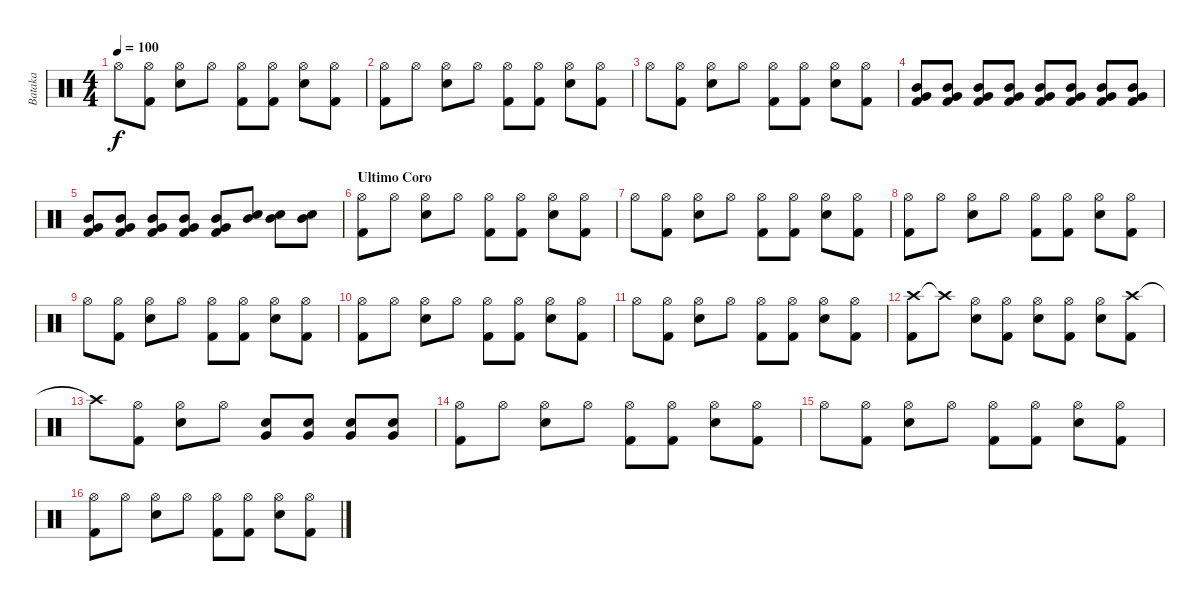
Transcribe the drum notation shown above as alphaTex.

\track ("Bataka" "Bataka") {instrument percussion}
\staff {score}
\articulation defaults
\ts (4 4)
\tempo 100
\clef neutral
\ks c "Hi-Hat (open)".8{dy f}
("Hi-Hat (open)" "Kick (hit) 2").8 ("Hi-Hat (open)" "Snare (hit) 2").8 "Hi-Hat (open)".8 ("Hi-Hat (open)" "Kick (hit) 2").8 ("Hi-Hat (open)" "Kick (hit) 2").8 ("Hi-Hat (open)" "Snare (hit) 2").8 ("Hi-Hat (open)" "Kick (hit) 2").8 |
("Hi-Hat (open)" "Kick (hit) 2").8 "Hi-Hat (open)".8 ("Hi-Hat (open)" "Snare (hit) 2").8 "Hi-Hat (open)".8 ("Hi-Hat (open)" "Kick (hit) 2").8 ("Hi-Hat (open)" "Kick (hit) 2").8 ("Hi-Hat (open)" "Snare (hit) 2").8 ("Hi-Hat (open)" "Kick (hit) 2").8 |
"Hi-Hat (open)".8 ("Hi-Hat (open)" "Kick (hit) 2").8 ("Hi-Hat (open)" "Snare (hit) 2").8 "Hi-Hat (open)".8 ("Hi-Hat (open)" "Kick (hit) 2").8 ("Hi-Hat (open)" "Kick (hit) 2").8 ("Hi-Hat (open)" "Snare (hit) 2").8 ("Hi-Hat (open)" "Kick (hit) 2").8 |
("Mid Tom (hit)" "Kick (hit) 2" "Very Low Tom (hit)").8 ("Mid Tom (hit)" "Kick (hit) 2" "Very Low Tom (hit)").8 ("Mid Tom (hit)" "Kick (hit) 2" "Very Low Tom (hit)").8 ("Mid Tom (hit)" "Kick (hit) 2" "Very Low Tom (hit)").8 ("Mid Tom (hit)" "Kick (hit) 2" "Very Low Tom (hit)").8 ("Mid Tom (hit)" "Kick (hit) 2" "Very Low Tom (hit)").8 ("Mid Tom (hit)" "Kick (hit) 2" "Very Low Tom (hit)").8 ("Mid Tom (hit)" "Kick (hit) 2" "Very Low Tom (hit)").8 |
("Mid Tom (hit)" "Kick (hit) 2" "Very Low Tom (hit)").8 ("Mid Tom (hit)" "Kick (hit) 2" "Very Low Tom (hit)").8 ("Mid Tom (hit)" "Kick (hit) 2" "Very Low Tom (hit)").8 ("Mid Tom (hit)" "Kick (hit) 2" "Very Low Tom (hit)").8 ("Mid Tom (hit)" "Kick (hit) 2" "Very Low Tom (hit)").8 ("Mid Tom (hit)" "Snare (hit) 2").8 ("Mid Tom (hit)" "Snare (hit) 2").8 ("Mid Tom (hit)" "Snare (hit) 2").8 |
\section ("" "Ultimo Coro")
("Hi-Hat (open)" "Kick (hit) 2").8 "Hi-Hat (open)".8 ("Hi-Hat (open)" "Snare (hit) 2").8 "Hi-Hat (open)".8 ("Hi-Hat (open)" "Kick (hit) 2").8 ("Hi-Hat (open)" "Kick (hit) 2").8 ("Hi-Hat (open)" "Snare (hit) 2").8 ("Hi-Hat (open)" "Kick (hit) 2").8 |
"Hi-Hat (open)".8 ("Hi-Hat (open)" "Kick (hit) 2").8 ("Hi-Hat (open)" "Snare (hit) 2").8 "Hi-Hat (open)".8 ("Hi-Hat (open)" "Kick (hit) 2").8 ("Hi-Hat (open)" "Kick (hit) 2").8 ("Hi-Hat (open)" "Snare (hit) 2").8 ("Hi-Hat (open)" "Kick (hit) 2").8 |
("Hi-Hat (open)" "Kick (hit) 2").8 "Hi-Hat (open)".8 ("Hi-Hat (open)" "Snare (hit) 2").8 "Hi-Hat (open)".8 ("Hi-Hat (open)" "Kick (hit) 2").8 ("Hi-Hat (open)" "Kick (hit) 2").8 ("Hi-Hat (open)" "Snare (hit) 2").8 ("Hi-Hat (open)" "Kick (hit) 2").8 |
"Hi-Hat (open)".8 ("Hi-Hat (open)" "Kick (hit) 2").8 ("Hi-Hat (open)" "Snare (hit) 2").8 "Hi-Hat (open)".8 ("Hi-Hat (open)" "Kick (hit) 2").8 ("Hi-Hat (open)" "Kick (hit) 2").8 ("Hi-Hat (open)" "Snare (hit) 2").8 ("Hi-Hat (open)" "Kick (hit) 2").8 |
("Hi-Hat (open)" "Kick (hit) 2").8 "Hi-Hat (open)".8 ("Hi-Hat (open)" "Snare (hit) 2").8 "Hi-Hat (open)".8 ("Hi-Hat (open)" "Kick (hit) 2").8 ("Hi-Hat (open)" "Kick (hit) 2").8 ("Hi-Hat (open)" "Snare (hit) 2").8 ("Hi-Hat (open)" "Kick (hit) 2").8 |
"Hi-Hat (open)".8 ("Hi-Hat (open)" "Kick (hit) 2").8 ("Hi-Hat (open)" "Snare (hit) 2").8 "Hi-Hat (open)".8 ("Hi-Hat (open)" "Kick (hit) 2").8 ("Hi-Hat (open)" "Kick (hit) 2").8 ("Hi-Hat (open)" "Snare (hit) 2").8 ("Hi-Hat (open)" "Kick (hit) 2").8 |
("Crash high (hit)" "Kick (hit) 2").8 "Crash high (hit)"{t}.8 ("Hi-Hat (open)" "Snare (hit) 2").8 ("Hi-Hat (open)" "Kick (hit) 2").8 ("Hi-Hat (open)" "Snare (hit) 2").8 ("Hi-Hat (open)" "Kick (hit) 2").8 ("Hi-Hat (open)" "Snare (hit) 2").8 ("Crash high (hit)" "Kick (hit) 2").8 |
"Crash high (hit)"{t}.8 ("Hi-Hat (open)" "Kick (hit) 2").8 ("Hi-Hat (open)" "Snare (hit) 2").8 "Hi-Hat (open)".8 ("Very Low Tom (hit)" "Snare (hit) 2").8 ("Very Low Tom (hit)" "Snare (hit) 2").8 ("Very Low Tom (hit)" "Snare (hit) 2").8 ("Very Low Tom (hit)" "Snare (hit) 2").8 |
("Hi-Hat (open)" "Kick (hit) 2").8 "Hi-Hat (open)".8 ("Hi-Hat (open)" "Snare (hit) 2").8 "Hi-Hat (open)".8 ("Hi-Hat (open)" "Kick (hit) 2").8 ("Hi-Hat (open)" "Kick (hit) 2").8 ("Hi-Hat (open)" "Snare (hit) 2").8 ("Hi-Hat (open)" "Kick (hit) 2").8 |
"Hi-Hat (open)".8 ("Hi-Hat (open)" "Kick (hit) 2").8 ("Hi-Hat (open)" "Snare (hit) 2").8 "Hi-Hat (open)".8 ("Hi-Hat (open)" "Kick (hit) 2").8 ("Hi-Hat (open)" "Kick (hit) 2").8 ("Hi-Hat (open)" "Snare (hit) 2").8 ("Hi-Hat (open)" "Kick (hit) 2").8 |
("Hi-Hat (open)" "Kick (hit) 2").8 "Hi-Hat (open)".8 ("Hi-Hat (open)" "Snare (hit) 2").8 "Hi-Hat (open)".8 ("Hi-Hat (open)" "Kick (hit) 2").8 ("Hi-Hat (open)" "Kick (hit) 2").8 ("Hi-Hat (open)" "Snare (hit) 2").8 ("Hi-Hat (open)" "Kick (hit) 2").8
